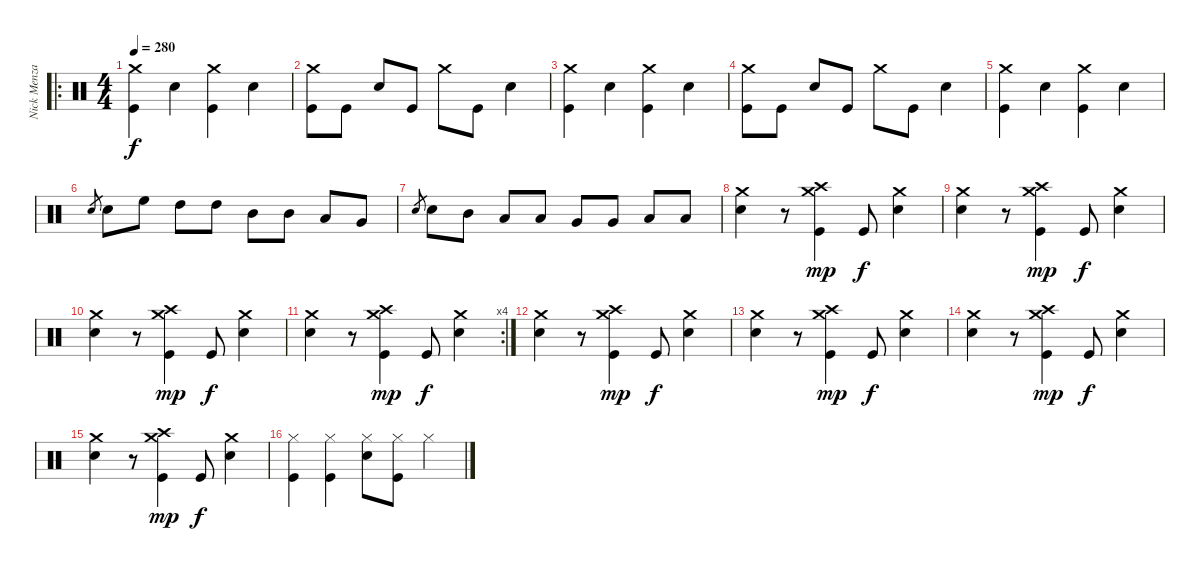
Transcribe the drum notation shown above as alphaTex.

\track ("Nick Menza" "Nick Menza") {instrument percussion}
\staff {score}
\articulation defaults
\ro
\ts (4 4)
\tempo 280
\clef neutral
\ks c
("Crash medium (hit)" "Kick (hit)").4{dy f} "Snare (hit) 2".4 ("Crash medium (hit)" "Kick (hit)").4 "Snare (hit) 2".4 |
("Crash medium (hit)" "Kick (hit)").8 "Kick (hit)".8 "Snare (hit) 2".8 "Kick (hit)".8 "Crash medium (hit)".8 "Kick (hit)".8 "Snare (hit) 2".4 |
("Crash medium (hit)" "Kick (hit)").4 "Snare (hit) 2".4 ("Crash medium (hit)" "Kick (hit)").4 "Snare (hit) 2".4 |
("Crash medium (hit)" "Kick (hit)").8 "Kick (hit)".8 "Snare (hit) 2".8 "Kick (hit)".8 "Crash medium (hit)".8 "Kick (hit)".8 "Snare (hit) 2".4 |
("Crash medium (hit)" "Kick (hit)").4 "Snare (hit) 2".4 ("Crash medium (hit)" "Kick (hit)").4 "Snare (hit) 2".4 |
"Snare (hit) 2".8{gr} "Snare (hit) 2".8 "High Floor Tom (hit)".8 "High Tom (hit)".8 "High Tom (hit)".8 "Mid Tom (hit)".8 "Mid Tom (hit)".8 "Low Tom (hit)".8 "Very Low Tom (hit)".8 |
"Snare (hit) 2".8{gr} "Snare (hit) 2".8 "Mid Tom (hit)".8 "Low Tom (hit)".8 "Low Tom (hit)".8 "Very Low Tom (hit)".8 "Very Low Tom (hit)".8 "Low Floor Tom (hit)".8 "Low Floor Tom (hit)".8 |
("Crash medium (hit)" "Snare (hit) 2").4 r.8 ("Crash high (hit)" "Crash medium (hit)" "Kick (hit)").4{dy mp} "Kick (hit)".8{dy f} ("Crash medium (hit)" "Snare (hit) 2").4 |
("Crash medium (hit)" "Snare (hit) 2").4 r.8 ("Crash high (hit)" "Crash medium (hit)" "Kick (hit)").4{dy mp} "Kick (hit)".8{dy f} ("Crash medium (hit)" "Snare (hit) 2").4 |
("Crash medium (hit)" "Snare (hit) 2").4 r.8 ("Crash high (hit)" "Crash medium (hit)" "Kick (hit)").4{dy mp} "Kick (hit)".8{dy f} ("Crash medium (hit)" "Snare (hit) 2").4 |
\rc 4
("Crash medium (hit)" "Snare (hit) 2").4 r.8 ("Crash high (hit)" "Crash medium (hit)" "Kick (hit)").4{dy mp} "Kick (hit)".8{dy f} ("Crash medium (hit)" "Snare (hit) 2").4 |
("Crash medium (hit)" "Snare (hit) 2").4 r.8 ("Crash high (hit)" "Crash medium (hit)" "Kick (hit)").4{dy mp} "Kick (hit)".8{dy f} ("Crash medium (hit)" "Snare (hit) 2").4 |
("Crash medium (hit)" "Snare (hit) 2").4 r.8 ("Crash high (hit)" "Crash medium (hit)" "Kick (hit)").4{dy mp} "Kick (hit)".8{dy f} ("Crash medium (hit)" "Snare (hit) 2").4 |
("Crash medium (hit)" "Snare (hit) 2").4 r.8 ("Crash high (hit)" "Crash medium (hit)" "Kick (hit)").4{dy mp} "Kick (hit)".8{dy f} ("Crash medium (hit)" "Snare (hit) 2").4 |
("Crash medium (hit)" "Snare (hit) 2").4 r.8 ("Crash high (hit)" "Crash medium (hit)" "Kick (hit)").4{dy mp} "Kick (hit)".8{dy f} ("Crash medium (hit)" "Snare (hit) 2").4 |
("Hi-Hat (closed)" "Kick (hit)").4 ("Hi-Hat (closed)" "Kick (hit)").4 ("Hi-Hat (closed)" "Snare (hit) 2").8 ("Hi-Hat (closed)" "Kick (hit)").8 "Hi-Hat (closed)".4
